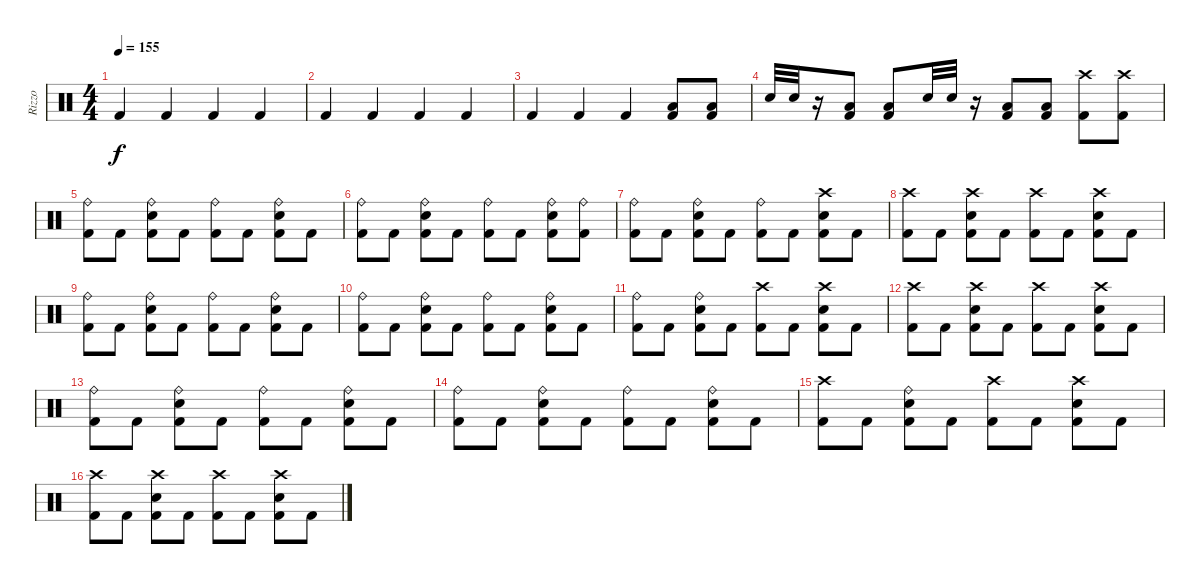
\track ("Rizzo" "Rizzo") {instrument percussion}
\staff {score}
\articulation defaults
\ts (4 4)
\tempo 155
\clef neutral
\ks c "Kick (hit) 2".4{dy f} "Kick (hit) 2".4 "Kick (hit) 2".4 "Kick (hit) 2".4
|
"Kick (hit) 2".4 "Kick (hit) 2".4 "Kick (hit) 2".4 "Kick (hit) 2".4 |
"Kick (hit) 2".4 "Kick (hit) 2".4 "Kick (hit) 2".4 ("Low Tom (hit)" "Kick (hit) 2").8 ("Low Tom (hit)" "Kick (hit) 2").8 |
"Electric Snare (hit)".32 "Electric Snare (hit)".32 r.16 ("Low Tom (hit)" "Kick (hit) 2").8 ("Low Tom (hit)" "Kick (hit) 2").8 "Electric Snare (hit)".32 "Electric Snare (hit)".32 r.16 ("Low Tom (hit)" "Kick (hit) 2").8 ("Low Tom (hit)" "Kick (hit) 2").8 ("Crash high (hit)" "Kick (hit) 2").8 ("Crash high (hit)" "Kick (hit) 2").8 |
("Ride (bell)" "Kick (hit) 2").8 "Kick (hit) 2".8 ("Ride (bell)" "Electric Snare (hit)" "Kick (hit) 2").8 "Kick (hit) 2".8 ("Ride (bell)" "Kick (hit) 2").8 "Kick (hit) 2".8 ("Ride (bell)" "Electric Snare (hit)" "Kick (hit) 2").8 "Kick (hit) 2".8 |
("Ride (bell)" "Kick (hit) 2").8 "Kick (hit) 2".8 ("Ride (bell)" "Electric Snare (hit)" "Kick (hit) 2").8 "Kick (hit) 2".8 ("Ride (bell)" "Kick (hit) 2").8 "Kick (hit) 2".8 ("Ride (bell)" "Electric Snare (hit)" "Kick (hit) 2").8 ("Ride (bell)" "Kick (hit) 2").8 |
("Ride (bell)" "Kick (hit) 2").8 "Kick (hit) 2".8 ("Ride (bell)" "Electric Snare (hit)" "Kick (hit) 2").8 "Kick (hit) 2".8 ("Ride (bell)" "Kick (hit) 2").8 "Kick (hit) 2".8 ("Crash high (hit)" "Electric Snare (hit)" "Kick (hit) 2").8 "Kick (hit) 2".8 |
("Crash high (hit)" "Kick (hit) 2").8 "Kick (hit) 2".8 ("Crash high (hit)" "Electric Snare (hit)" "Kick (hit) 2").8 "Kick (hit) 2".8 ("Crash high (hit)" "Kick (hit) 2").8 "Kick (hit) 2".8 ("Crash high (hit)" "Electric Snare (hit)" "Kick (hit) 2").8 "Kick (hit) 2".8 |
("Ride (bell)" "Kick (hit) 2").8 "Kick (hit) 2".8 ("Ride (bell)" "Electric Snare (hit)" "Kick (hit) 2").8 "Kick (hit) 2".8 ("Ride (bell)" "Kick (hit) 2").8 "Kick (hit) 2".8 ("Ride (bell)" "Electric Snare (hit)" "Kick (hit) 2").8 "Kick (hit) 2".8 |
("Ride (bell)" "Kick (hit) 2").8 "Kick (hit) 2".8 ("Ride (bell)" "Electric Snare (hit)" "Kick (hit) 2").8 "Kick (hit) 2".8 ("Ride (bell)" "Kick (hit) 2").8 "Kick (hit) 2".8 ("Ride (bell)" "Electric Snare (hit)" "Kick (hit) 2").8 "Kick (hit) 2".8 |
("Ride (bell)" "Kick (hit) 2").8 "Kick (hit) 2".8 ("Ride (bell)" "Electric Snare (hit)" "Kick (hit) 2").8 "Kick (hit) 2".8 ("Crash high (hit)" "Kick (hit) 2").8 "Kick (hit) 2".8 ("Crash high (hit)" "Electric Snare (hit)" "Kick (hit) 2").8 "Kick (hit) 2".8 |
("Crash high (hit)" "Kick (hit) 2").8 "Kick (hit) 2".8 ("Crash high (hit)" "Electric Snare (hit)" "Kick (hit) 2").8 "Kick (hit) 2".8 ("Crash high (hit)" "Kick (hit) 2").8 "Kick (hit) 2".8 ("Crash high (hit)" "Electric Snare (hit)" "Kick (hit) 2").8 "Kick (hit) 2".8 |
("Ride (bell)" "Kick (hit) 2").8 "Kick (hit) 2".8 ("Ride (bell)" "Electric Snare (hit)" "Kick (hit) 2").8 "Kick (hit) 2".8 ("Ride (bell)" "Kick (hit) 2").8 "Kick (hit) 2".8 ("Ride (bell)" "Electric Snare (hit)" "Kick (hit) 2").8 "Kick (hit) 2".8 |
("Ride (bell)" "Kick (hit) 2").8 "Kick (hit) 2".8 ("Ride (bell)" "Electric Snare (hit)" "Kick (hit) 2").8 "Kick (hit) 2".8 ("Ride (bell)" "Kick (hit) 2").8 "Kick (hit) 2".8 ("Ride (bell)" "Electric Snare (hit)" "Kick (hit) 2").8 "Kick (hit) 2".8 |
("Crash high (hit)" "Kick (hit) 2").8 "Kick (hit) 2".8 ("Ride (bell)" "Electric Snare (hit)" "Kick (hit) 2").8 "Kick (hit) 2".8 ("Crash high (hit)" "Kick (hit) 2").8 "Kick (hit) 2".8 ("Crash high (hit)" "Electric Snare (hit)" "Kick (hit) 2").8 "Kick (hit) 2".8 |
("Crash high (hit)" "Kick (hit) 2").8 "Kick (hit) 2".8 ("Crash high (hit)" "Electric Snare (hit)" "Kick (hit) 2").8 "Kick (hit) 2".8 ("Crash high (hit)" "Kick (hit) 2").8 "Kick (hit) 2".8 ("Crash high (hit)" "Electric Snare (hit)" "Kick (hit) 2").8 "Kick (hit) 2".8
